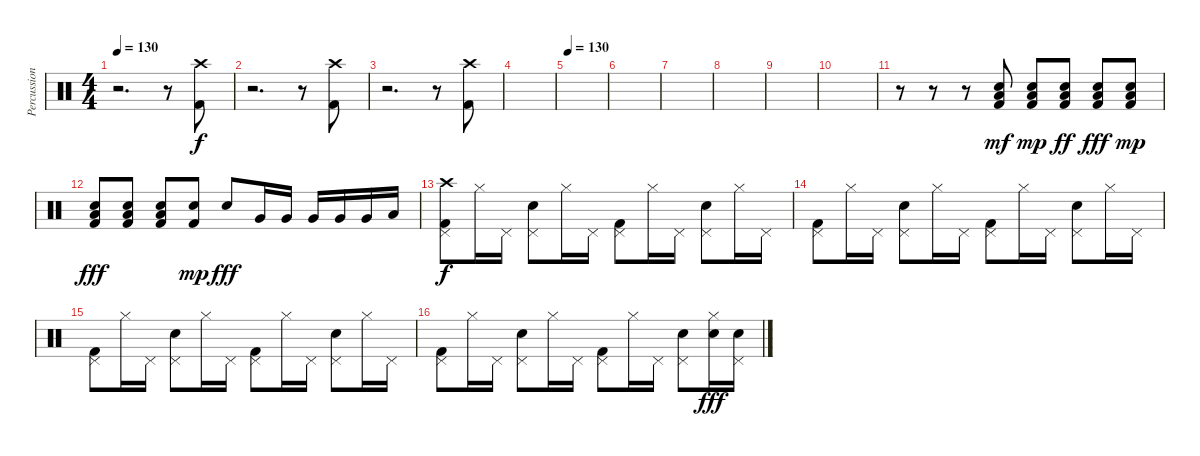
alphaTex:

\track ("Percussion" "Percussion") {instrument percussion}
\staff {score}
\articulation defaults
\ts (4 4)
\tempo 130
\clef neutral
\ks c
r.2{d dy f} r.8 ("Kick (hit) 2" "Crash high (hit)").8 |
r.2{d} r.8 ("Kick (hit) 2" "Crash high (hit)").8 |
r.2{d} r.8 ("Kick (hit) 2" "Crash high (hit)").8 |
|
\tempo 130
|
|
|
|
|
|
r.8 r.8 r.8 ("Snare (hit) 2" "Kick (hit) 2" "Low Floor Tom (hit)").8{dy mf} ("Snare (hit) 2" "Kick (hit) 2" "Low Floor Tom (hit)").8{dy mp} ("Snare (hit) 2" "Kick (hit) 2" "Low Floor Tom (hit)").8{dy ff} ("Snare (hit) 2" "Kick (hit) 2" "Low Floor Tom (hit)").8{dy fff} ("Snare (hit) 2" "Kick (hit) 2" "Low Floor Tom (hit)").8{dy mp} |
("Snare (hit) 2" "Kick (hit) 2" "Low Floor Tom (hit)").8{dy fff} ("Snare (hit) 2" "Kick (hit) 2" "Low Floor Tom (hit)").8 ("Snare (hit) 2" "Kick (hit) 2" "Low Floor Tom (hit)").8 ("Snare (hit) 2" "Kick (hit) 2").8{dy mp} "Snare (hit) 2".8{dy fff} "Very Low Tom (hit)".16 "Very Low Tom (hit)".16 "Very Low Tom (hit)".16 "Very Low Tom (hit)".16 "Very Low Tom (hit)".16 "Low Floor Tom (hit)".16 |
("Crash high (hit)" "Pedal Hi-Hat (hit)" "Kick (hit) 2").8{dy f} "Hi-Hat (closed)".16 "Pedal Hi-Hat (hit)".16 ("Pedal Hi-Hat (hit)" "Snare (hit) 2").8 "Hi-Hat (closed)".16 "Pedal Hi-Hat (hit)".16 ("Pedal Hi-Hat (hit)" "Kick (hit) 2").8 "Hi-Hat (closed)".16 "Pedal Hi-Hat (hit)".16 ("Pedal Hi-Hat (hit)" "Snare (hit) 2").8 "Hi-Hat (closed)".16 "Pedal Hi-Hat (hit)".16 |
("Pedal Hi-Hat (hit)" "Kick (hit) 2").8 "Hi-Hat (closed)".16 "Pedal Hi-Hat (hit)".16 ("Pedal Hi-Hat (hit)" "Snare (hit) 2").8 "Hi-Hat (closed)".16 "Pedal Hi-Hat (hit)".16 ("Pedal Hi-Hat (hit)" "Kick (hit) 2").8 "Hi-Hat (closed)".16 "Pedal Hi-Hat (hit)".16 ("Pedal Hi-Hat (hit)" "Snare (hit) 2").8 "Hi-Hat (closed)".16 "Pedal Hi-Hat (hit)".16 |
("Pedal Hi-Hat (hit)" "Kick (hit) 2").8 "Hi-Hat (closed)".16 "Pedal Hi-Hat (hit)".16 ("Pedal Hi-Hat (hit)" "Snare (hit) 2").8 "Hi-Hat (closed)".16 "Pedal Hi-Hat (hit)".16 ("Pedal Hi-Hat (hit)" "Kick (hit) 2").8 "Hi-Hat (closed)".16 "Pedal Hi-Hat (hit)".16 ("Pedal Hi-Hat (hit)" "Snare (hit) 2").8 "Hi-Hat (closed)".16 "Pedal Hi-Hat (hit)".16 |
("Pedal Hi-Hat (hit)" "Kick (hit) 2").8 "Hi-Hat (closed)".16 "Pedal Hi-Hat (hit)".16 ("Pedal Hi-Hat (hit)" "Snare (hit) 2").8 "Hi-Hat (closed)".16 "Pedal Hi-Hat (hit)".16 ("Pedal Hi-Hat (hit)" "Kick (hit) 2").8 "Hi-Hat (closed)".16 "Pedal Hi-Hat (hit)".16 ("Pedal Hi-Hat (hit)" "Snare (hit) 2").8 ("Hi-Hat (closed)" "Snare (hit) 2").16{dy fff} ("Pedal Hi-Hat (hit)" "Snare (hit) 2").16
